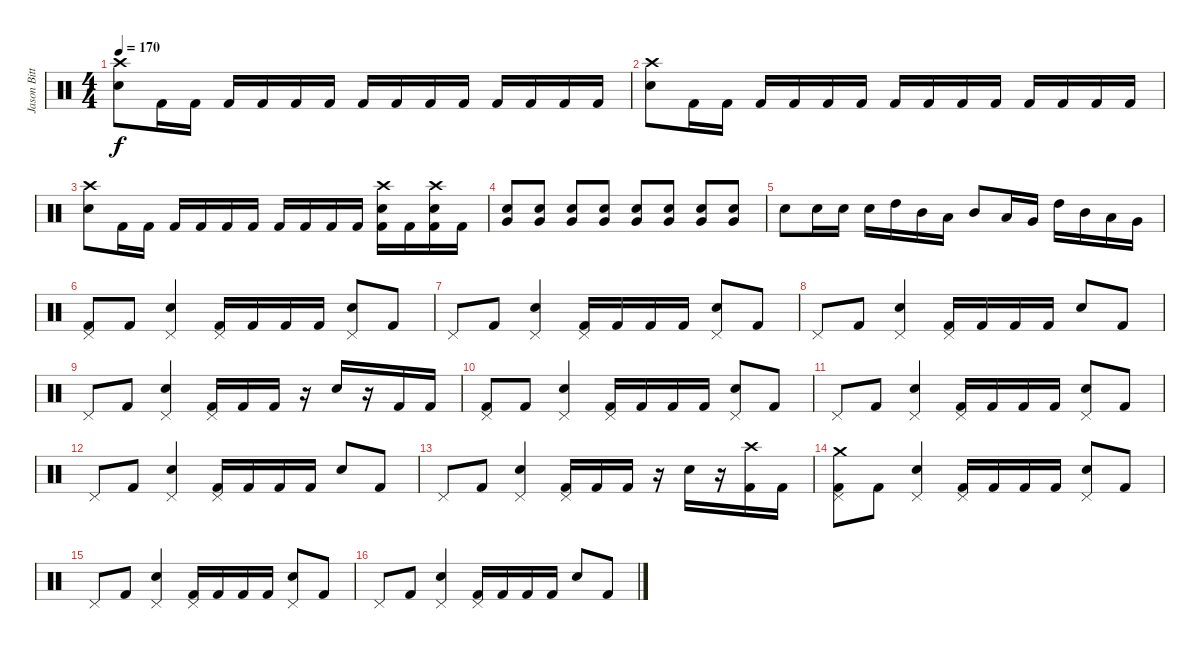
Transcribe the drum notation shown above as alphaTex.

\track ("Jason Bittner" "Jason Bitt") {instrument percussion}
\staff {score}
\articulation defaults
\ts (4 4)
\tempo 170
\clef neutral
\ks c
("Crash high (hit)" "Electric Snare (hit)").8{dy f} "Kick (hit) 2".16 "Kick (hit) 2".16 "Kick (hit) 2".16 "Kick (hit) 2".16 "Kick (hit) 2".16 "Kick (hit) 2".16 "Kick (hit) 2".16 "Kick (hit) 2".16 "Kick (hit) 2".16 "Kick (hit) 2".16 "Kick (hit) 2".16 "Kick (hit) 2".16 "Kick (hit) 2".16 "Kick (hit) 2".16 |
("Crash high (hit)" "Electric Snare (hit)").8 "Kick (hit) 2".16 "Kick (hit) 2".16 "Kick (hit) 2".16 "Kick (hit) 2".16 "Kick (hit) 2".16 "Kick (hit) 2".16 "Kick (hit) 2".16 "Kick (hit) 2".16 "Kick (hit) 2".16 "Kick (hit) 2".16 "Kick (hit) 2".16 "Kick (hit) 2".16 "Kick (hit) 2".16 "Kick (hit) 2".16 |
("Crash high (hit)" "Electric Snare (hit)").8 "Kick (hit) 2".16 "Kick (hit) 2".16 "Kick (hit) 2".16 "Kick (hit) 2".16 "Kick (hit) 2".16 "Kick (hit) 2".16 "Kick (hit) 2".16 "Kick (hit) 2".16 "Kick (hit) 2".16 "Kick (hit) 2".16 ("Crash high (hit)" "Electric Snare (hit)" "Kick (hit) 2").16 "Kick (hit) 2".16 ("Crash high (hit)" "Electric Snare (hit)" "Kick (hit) 2").16 "Kick (hit) 2".16 |
("Very Low Tom (hit)" "Electric Snare (hit)").8 ("Very Low Tom (hit)" "Electric Snare (hit)").8 ("Very Low Tom (hit)" "Electric Snare (hit)").8 ("Very Low Tom (hit)" "Electric Snare (hit)").8 ("Very Low Tom (hit)" "Electric Snare (hit)").8 ("Very Low Tom (hit)" "Electric Snare (hit)").8 ("Very Low Tom (hit)" "Electric Snare (hit)").8 ("Very Low Tom (hit)" "Electric Snare (hit)").8 |
"Electric Snare (hit)".8 "Electric Snare (hit)".16 "Electric Snare (hit)".16 "Electric Snare (hit)".16 "High Tom (hit)".16 "Mid Tom (hit)".16 "Low Tom (hit)".16 "Mid Tom (hit)".8 "Low Tom (hit)".16 "Very Low Tom (hit)".16 "High Tom (hit)".16 "Mid Tom (hit)".16 "Low Tom (hit)".16 "Very Low Tom (hit)".16 |
("Pedal Hi-Hat (hit)" "Kick (hit) 2").8 "Kick (hit) 2".8 ("Pedal Hi-Hat (hit)" "Electric Snare (hit)").4 ("Pedal Hi-Hat (hit)" "Kick (hit) 2").16 "Kick (hit) 2".16 "Kick (hit) 2".16 "Kick (hit) 2".16 ("Pedal Hi-Hat (hit)" "Electric Snare (hit)").8 "Kick (hit) 2".8 |
"Pedal Hi-Hat (hit)".8 "Kick (hit) 2".8 ("Pedal Hi-Hat (hit)" "Electric Snare (hit)").4 ("Pedal Hi-Hat (hit)" "Kick (hit) 2").16 "Kick (hit) 2".16 "Kick (hit) 2".16 "Kick (hit) 2".16 ("Pedal Hi-Hat (hit)" "Electric Snare (hit)").8 "Kick (hit) 2".8 |
"Pedal Hi-Hat (hit)".8 "Kick (hit) 2".8 ("Pedal Hi-Hat (hit)" "Electric Snare (hit)").4 ("Pedal Hi-Hat (hit)" "Kick (hit) 2").16 "Kick (hit) 2".16 "Kick (hit) 2".16 "Kick (hit) 2".16 "Electric Snare (hit)".8 "Kick (hit) 2".8 |
"Pedal Hi-Hat (hit)".8 "Kick (hit) 2".8 ("Pedal Hi-Hat (hit)" "Electric Snare (hit)").4 ("Pedal Hi-Hat (hit)" "Kick (hit) 2").16 "Kick (hit) 2".16 "Kick (hit) 2".16 r.16 "Electric Snare (hit)".16 r.16 "Kick (hit) 2".16 "Kick (hit) 2".16 |
("Pedal Hi-Hat (hit)" "Kick (hit) 2").8 "Kick (hit) 2".8 ("Pedal Hi-Hat (hit)" "Electric Snare (hit)").4 ("Pedal Hi-Hat (hit)" "Kick (hit) 2").16 "Kick (hit) 2".16 "Kick (hit) 2".16 "Kick (hit) 2".16 ("Pedal Hi-Hat (hit)" "Electric Snare (hit)").8 "Kick (hit) 2".8 |
"Pedal Hi-Hat (hit)".8 "Kick (hit) 2".8 ("Pedal Hi-Hat (hit)" "Electric Snare (hit)").4 ("Pedal Hi-Hat (hit)" "Kick (hit) 2").16 "Kick (hit) 2".16 "Kick (hit) 2".16 "Kick (hit) 2".16 ("Pedal Hi-Hat (hit)" "Electric Snare (hit)").8 "Kick (hit) 2".8 |
"Pedal Hi-Hat (hit)".8 "Kick (hit) 2".8 ("Pedal Hi-Hat (hit)" "Electric Snare (hit)").4 ("Pedal Hi-Hat (hit)" "Kick (hit) 2").16 "Kick (hit) 2".16 "Kick (hit) 2".16 "Kick (hit) 2".16 "Electric Snare (hit)".8 "Kick (hit) 2".8 |
"Pedal Hi-Hat (hit)".8 "Kick (hit) 2".8 ("Pedal Hi-Hat (hit)" "Electric Snare (hit)").4 ("Pedal Hi-Hat (hit)" "Kick (hit) 2").16 "Kick (hit) 2".16 "Kick (hit) 2".16 r.16 "Electric Snare (hit)".16 r.16 ("Crash high (hit)" "Kick (hit) 2").16 "Kick (hit) 2".16 |
("Crash medium (hit)" "Pedal Hi-Hat (hit)" "Kick (hit) 2").8 "Kick (hit) 2".8 ("Pedal Hi-Hat (hit)" "Electric Snare (hit)").4 ("Pedal Hi-Hat (hit)" "Kick (hit) 2").16 "Kick (hit) 2".16 "Kick (hit) 2".16 "Kick (hit) 2".16 ("Pedal Hi-Hat (hit)" "Electric Snare (hit)").8 "Kick (hit) 2".8 |
"Pedal Hi-Hat (hit)".8 "Kick (hit) 2".8 ("Pedal Hi-Hat (hit)" "Electric Snare (hit)").4 ("Pedal Hi-Hat (hit)" "Kick (hit) 2").16 "Kick (hit) 2".16 "Kick (hit) 2".16 "Kick (hit) 2".16 ("Pedal Hi-Hat (hit)" "Electric Snare (hit)").8 "Kick (hit) 2".8 |
"Pedal Hi-Hat (hit)".8 "Kick (hit) 2".8 ("Pedal Hi-Hat (hit)" "Electric Snare (hit)").4 ("Pedal Hi-Hat (hit)" "Kick (hit) 2").16 "Kick (hit) 2".16 "Kick (hit) 2".16 "Kick (hit) 2".16 "Electric Snare (hit)".8 "Kick (hit) 2".8
